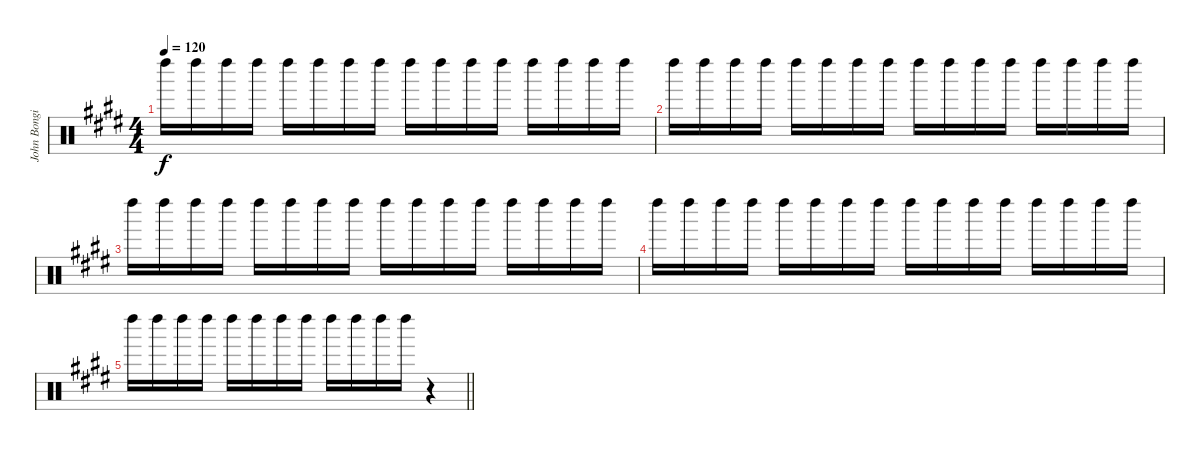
\track ("John Bongiovi (Maracas)" "John Bongi") {instrument percussion}
\staff {score}
\articulation defaults
\ts (4 4)
\tempo 120
\clef neutral
\ks c#minor "Left Maraca (hit)".16{dy f} "Left Maraca (hit)".16 "Left Maraca (hit)".16 "Left Maraca (hit)".16 "Left Maraca (hit)".16 "Left Maraca (hit)".16 "Left Maraca (hit)".16 "Left Maraca (hit)".16 "Left Maraca (hit)".16 "Left Maraca (hit)".16 "Left Maraca (hit)".16 "Left Maraca (hit)".16 "Left Maraca (hit)".16 "Left Maraca (hit)".16 "Left Maraca (hit)".16 "Left Maraca (hit)".16
|
"Left Maraca (hit)".16 "Left Maraca (hit)".16 "Left Maraca (hit)".16 "Left Maraca (hit)".16 "Left Maraca (hit)".16 "Left Maraca (hit)".16 "Left Maraca (hit)".16 "Left Maraca (hit)".16 "Left Maraca (hit)".16 "Left Maraca (hit)".16 "Left Maraca (hit)".16 "Left Maraca (hit)".16 "Left Maraca (hit)".16 "Left Maraca (hit)".16 "Left Maraca (hit)".16 "Left Maraca (hit)".16 |
"Left Maraca (hit)".16 "Left Maraca (hit)".16 "Left Maraca (hit)".16 "Left Maraca (hit)".16 "Left Maraca (hit)".16 "Left Maraca (hit)".16 "Left Maraca (hit)".16 "Left Maraca (hit)".16 "Left Maraca (hit)".16 "Left Maraca (hit)".16 "Left Maraca (hit)".16 "Left Maraca (hit)".16 "Left Maraca (hit)".16 "Left Maraca (hit)".16 "Left Maraca (hit)".16 "Left Maraca (hit)".16 |
"Left Maraca (hit)".16 "Left Maraca (hit)".16 "Left Maraca (hit)".16 "Left Maraca (hit)".16 "Left Maraca (hit)".16 "Left Maraca (hit)".16 "Left Maraca (hit)".16 "Left Maraca (hit)".16 "Left Maraca (hit)".16 "Left Maraca (hit)".16 "Left Maraca (hit)".16 "Left Maraca (hit)".16 "Left Maraca (hit)".16 "Left Maraca (hit)".16 "Left Maraca (hit)".16 "Left Maraca (hit)".16 |
\barLineRight lightlight "Left Maraca (hit)".16 "Left Maraca (hit)".16 "Left Maraca (hit)".16 "Left Maraca (hit)".16 "Left Maraca (hit)".16 "Left Maraca (hit)".16 "Left Maraca (hit)".16 "Left Maraca (hit)".16 "Left Maraca (hit)".16 "Left Maraca (hit)".16 "Left Maraca (hit)".16 "Left Maraca (hit)".16
r.4
